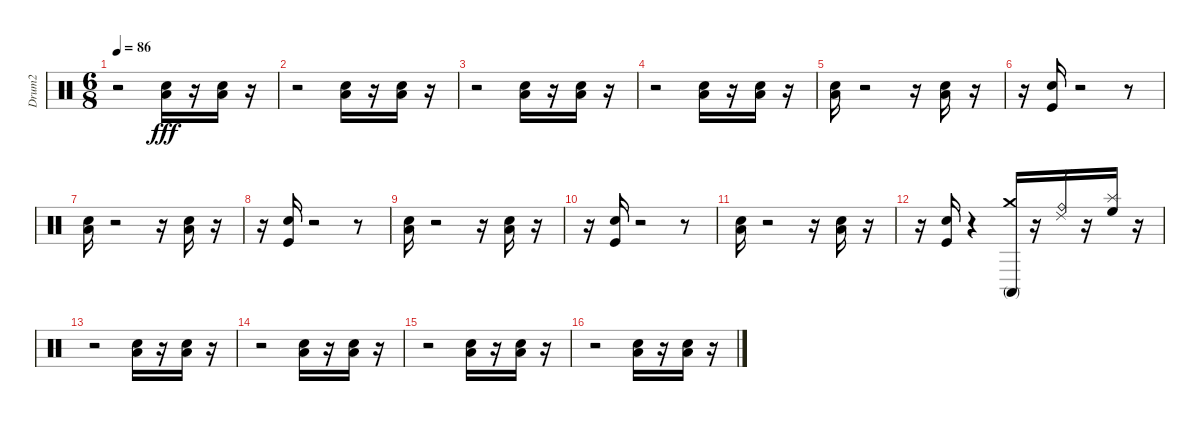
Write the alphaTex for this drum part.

\track ("Drum2" "Drum2") {instrument percussion}
\staff {score}
\articulation defaults
\ts (6 8)
\tempo 86
\clef neutral
\ks c
r.2{dy fff} ("Snare (hit) 2" "Low Floor Tom (hit)").16 r.16 ("Snare (hit) 2" "Low Floor Tom (hit)").16 r.16 |
r.2 ("Snare (hit) 2" "Low Floor Tom (hit)").16 r.16 ("Snare (hit) 2" "Low Floor Tom (hit)").16 r.16 |
r.2 ("Snare (hit) 2" "Low Floor Tom (hit)").16 r.16 ("Snare (hit) 2" "Low Floor Tom (hit)").16 r.16 |
r.2 ("Snare (hit) 2" "Low Floor Tom (hit)").16 r.16 ("Snare (hit) 2" "Low Floor Tom (hit)").16 r.16 |
("Snare (hit) 2" "Low Floor Tom (hit)").16 r.2 r.16 ("Snare (hit) 2" "Low Floor Tom (hit)").16 r.16 |
r.16 ("Kick (hit)" "Snare (hit) 2").16 r.2 r.8 |
("Snare (hit) 2" "Low Floor Tom (hit)").16 r.2 r.16 ("Snare (hit) 2" "Low Floor Tom (hit)").16 r.16 |
r.16 ("Kick (hit)" "Snare (hit) 2").16 r.2 r.8 |
("Snare (hit) 2" "Low Floor Tom (hit)").16 r.2 r.16 ("Snare (hit) 2" "Low Floor Tom (hit)").16 r.16 |
r.16 ("Kick (hit)" "Snare (hit) 2").16 r.2 r.8 |
("Snare (hit) 2" "Low Floor Tom (hit)").16 r.2 r.16 ("Snare (hit) 2" "Low Floor Tom (hit)").16 r.16 |
r.16 ("Kick (hit)" "Snare (hit) 2").16 r.4 ("Crash medium (hit)" "Conga high (mute)").16 r.16 ("Ride (bell)" "Ride (edge) 2").16 r.16 ("High Floor Tom (hit)" "Splash (hit)").16 r.16 |
r.2 ("Snare (hit) 2" "Low Floor Tom (hit)").16 r.16 ("Snare (hit) 2" "Low Floor Tom (hit)").16 r.16 |
r.2 ("Snare (hit) 2" "Low Floor Tom (hit)").16 r.16 ("Snare (hit) 2" "Low Floor Tom (hit)").16 r.16 |
r.2 ("Snare (hit) 2" "Low Floor Tom (hit)").16 r.16 ("Snare (hit) 2" "Low Floor Tom (hit)").16 r.16 |
r.2 ("Snare (hit) 2" "Low Floor Tom (hit)").16 r.16 ("Snare (hit) 2" "Low Floor Tom (hit)").16 r.16
